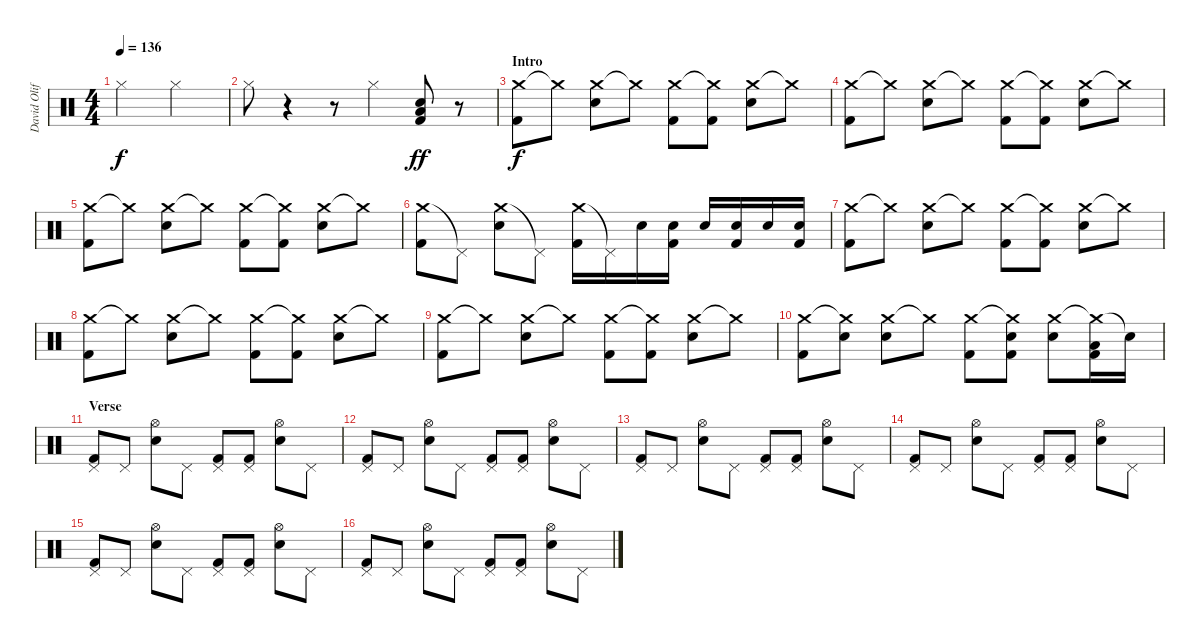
\track ("David Oliffe" "David Olif") {instrument percussion}
\staff {score}
\articulation defaults
\ts (4 4)
\tempo 136
\clef neutral
\ks c "Hi-Hat (closed)".2{dy f} "Hi-Hat (closed)".2
|
"Hi-Hat (closed)".8 r.4 r.8 "Hi-Hat (closed)".4 ("Electric Snare (hit)" "Low Tom (hit)" "Kick (hit) 2").8{dy ff} r.8 |
\section ("" "Intro")
("Crash medium (hit)" "Kick (hit) 2").8{dy f} "Crash medium (hit)"{t}.8 ("Crash medium (hit)" "Electric Snare (hit)").8 "Crash medium (hit)"{t}.8 ("Crash medium (hit)" "Kick (hit) 2").8 ("Crash medium (hit)"{t} "Kick (hit) 2").8 ("Crash medium (hit)" "Electric Snare (hit)").8 "Crash medium (hit)"{t}.8 |
("Crash medium (hit)" "Kick (hit) 2").8 "Crash medium (hit)"{t}.8 ("Crash medium (hit)" "Electric Snare (hit)").8 "Crash medium (hit)"{t}.8 ("Crash medium (hit)" "Kick (hit) 2").8 ("Crash medium (hit)"{t} "Kick (hit) 2").8 ("Crash medium (hit)" "Electric Snare (hit)").8 "Crash medium (hit)"{t}.8 |
("Crash medium (hit)" "Kick (hit) 2").8 "Crash medium (hit)"{t}.8 ("Crash medium (hit)" "Electric Snare (hit)").8 "Crash medium (hit)"{t}.8 ("Crash medium (hit)" "Kick (hit) 2").8 ("Crash medium (hit)"{t} "Kick (hit) 2").8 ("Crash medium (hit)" "Electric Snare (hit)").8 "Crash medium (hit)"{t}.8 |
("Crash medium (hit)" "Kick (hit) 2").8 "Pedal Hi-Hat (hit)"{t}.8 ("Crash medium (hit)" "Electric Snare (hit)").8 "Pedal Hi-Hat (hit)"{t}.8 ("Crash medium (hit)" "Kick (hit) 2").16 "Pedal Hi-Hat (hit)"{t}.16 "Electric Snare (hit)".16 ("Electric Snare (hit)" "Kick (hit) 2").16 "Electric Snare (hit)".16 ("Electric Snare (hit)" "Kick (hit) 2").16 "Electric Snare (hit)".16 ("Electric Snare (hit)" "Kick (hit) 2").16 |
("Crash medium (hit)" "Kick (hit) 2").8 "Crash medium (hit)"{t}.8 ("Crash medium (hit)" "Electric Snare (hit)").8 "Crash medium (hit)"{t}.8 ("Crash medium (hit)" "Kick (hit) 2").8 ("Crash medium (hit)"{t} "Kick (hit) 2").8 ("Crash medium (hit)" "Electric Snare (hit)").8 "Crash medium (hit)"{t}.8 |
("Crash medium (hit)" "Kick (hit) 2").8 "Crash medium (hit)"{t}.8 ("Crash medium (hit)" "Electric Snare (hit)").8 "Crash medium (hit)"{t}.8 ("Crash medium (hit)" "Kick (hit) 2").8 ("Crash medium (hit)"{t} "Kick (hit) 2").8 ("Crash medium (hit)" "Electric Snare (hit)").8 "Crash medium (hit)"{t}.8 |
("Crash medium (hit)" "Kick (hit) 2").8 "Crash medium (hit)"{t}.8 ("Crash medium (hit)" "Electric Snare (hit)").8 "Crash medium (hit)"{t}.8 ("Crash medium (hit)" "Kick (hit) 2").8 ("Crash medium (hit)"{t} "Kick (hit) 2").8 ("Crash medium (hit)" "Electric Snare (hit)").8 "Crash medium (hit)"{t}.8 |
("Crash medium (hit)" "Kick (hit) 2").8 ("Crash medium (hit)"{t} "Electric Snare (hit)").8 ("Crash medium (hit)" "Electric Snare (hit)").8 "Crash medium (hit)"{t}.8 ("Crash medium (hit)" "Kick (hit) 2").8 ("Crash medium (hit)"{t} "Electric Snare (hit)" "Kick (hit) 2").8 ("Crash medium (hit)" "Electric Snare (hit)").8 ("Crash medium (hit)"{t} "Low Tom (hit)" "Kick (hit) 2").16 "Snare (hit)"{t}.16 |
\section ("" "Verse")
("Pedal Hi-Hat (hit)" "Kick (hit) 2").8 "Pedal Hi-Hat (hit)".8 ("Hi-Hat (open)" "Electric Snare (hit)").8 "Pedal Hi-Hat (hit)".8 ("Pedal Hi-Hat (hit)" "Kick (hit) 2").8 ("Pedal Hi-Hat (hit)" "Kick (hit) 2").8 ("Hi-Hat (open)" "Electric Snare (hit)").8 "Pedal Hi-Hat (hit)".8 |
("Pedal Hi-Hat (hit)" "Kick (hit) 2").8 "Pedal Hi-Hat (hit)".8 ("Hi-Hat (open)" "Electric Snare (hit)").8 "Pedal Hi-Hat (hit)".8 ("Pedal Hi-Hat (hit)" "Kick (hit) 2").8 ("Pedal Hi-Hat (hit)" "Kick (hit) 2").8 ("Hi-Hat (open)" "Electric Snare (hit)").8 "Pedal Hi-Hat (hit)".8 |
("Pedal Hi-Hat (hit)" "Kick (hit) 2").8 "Pedal Hi-Hat (hit)".8 ("Hi-Hat (open)" "Electric Snare (hit)").8 "Pedal Hi-Hat (hit)".8 ("Pedal Hi-Hat (hit)" "Kick (hit) 2").8 ("Pedal Hi-Hat (hit)" "Kick (hit) 2").8 ("Hi-Hat (open)" "Electric Snare (hit)").8 "Pedal Hi-Hat (hit)".8 |
("Pedal Hi-Hat (hit)" "Kick (hit) 2").8 "Pedal Hi-Hat (hit)".8 ("Hi-Hat (open)" "Electric Snare (hit)").8 "Pedal Hi-Hat (hit)".8 ("Pedal Hi-Hat (hit)" "Kick (hit) 2").8 ("Pedal Hi-Hat (hit)" "Kick (hit) 2").8 ("Hi-Hat (open)" "Electric Snare (hit)").8 "Pedal Hi-Hat (hit)".8 |
("Pedal Hi-Hat (hit)" "Kick (hit) 2").8 "Pedal Hi-Hat (hit)".8 ("Hi-Hat (open)" "Electric Snare (hit)").8 "Pedal Hi-Hat (hit)".8 ("Pedal Hi-Hat (hit)" "Kick (hit) 2").8 ("Pedal Hi-Hat (hit)" "Kick (hit) 2").8 ("Hi-Hat (open)" "Electric Snare (hit)").8 "Pedal Hi-Hat (hit)".8 |
("Pedal Hi-Hat (hit)" "Kick (hit) 2").8 "Pedal Hi-Hat (hit)".8 ("Hi-Hat (open)" "Electric Snare (hit)").8 "Pedal Hi-Hat (hit)".8 ("Pedal Hi-Hat (hit)" "Kick (hit) 2").8 ("Pedal Hi-Hat (hit)" "Kick (hit) 2").8 ("Hi-Hat (open)" "Electric Snare (hit)").8 "Pedal Hi-Hat (hit)".8
